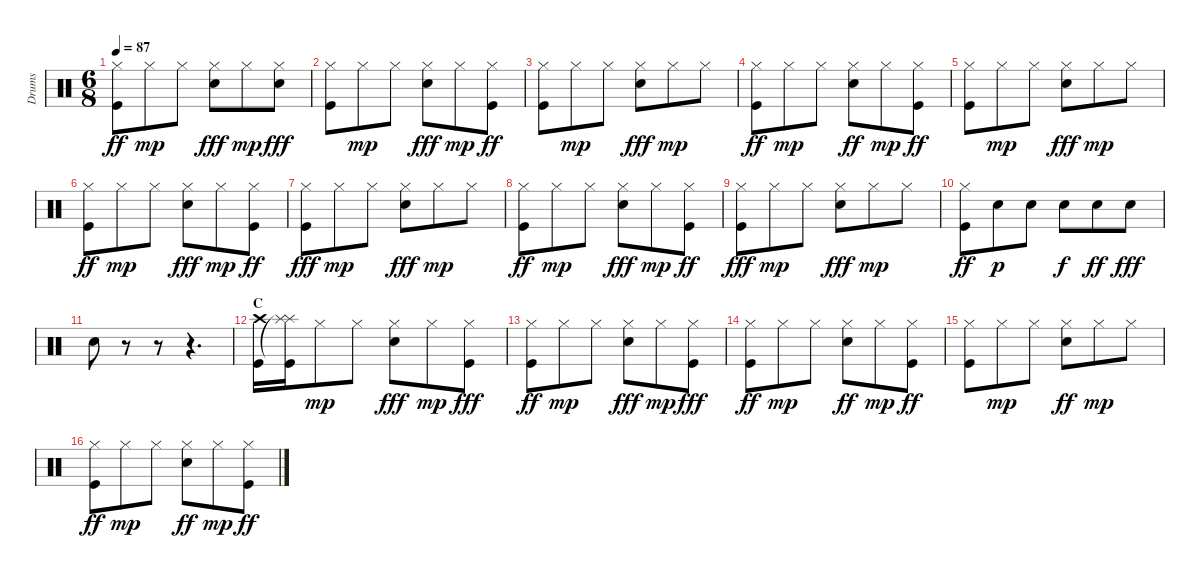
\track ("Drums" "Drums") {instrument percussion}
\staff {score}
\articulation defaults
\ts (6 8)
\tempo 87
\clef neutral
\ks c
("Hi-Hat (closed)" "Kick (hit)").8{dy ff} "Hi-Hat (closed)".8{dy mp} "Hi-Hat (closed)".8 ("Hi-Hat (closed)" "Snare (hit) 2").8{dy fff} "Hi-Hat (closed)".8{dy mp} ("Hi-Hat (closed)" "Snare (hit) 2").8{dy fff} |
("Hi-Hat (closed)" "Kick (hit)").8 "Hi-Hat (closed)".8{dy mp} "Hi-Hat (closed)".8 ("Hi-Hat (closed)" "Snare (hit) 2").8{dy fff} "Hi-Hat (closed)".8{dy mp} ("Hi-Hat (closed)" "Kick (hit)").8{dy ff} |
("Hi-Hat (closed)" "Kick (hit)").8 "Hi-Hat (closed)".8{dy mp} "Hi-Hat (closed)".8 ("Hi-Hat (closed)" "Snare (hit) 2").8{dy fff} "Hi-Hat (closed)".8{dy mp} "Hi-Hat (closed)".8 |
("Hi-Hat (closed)" "Kick (hit)").8{dy ff} "Hi-Hat (closed)".8{dy mp} "Hi-Hat (closed)".8 ("Hi-Hat (closed)" "Snare (hit) 2").8{dy ff} "Hi-Hat (closed)".8{dy mp} ("Hi-Hat (closed)" "Kick (hit)").8{dy ff} |
("Hi-Hat (closed)" "Kick (hit)").8 "Hi-Hat (closed)".8{dy mp} "Hi-Hat (closed)".8 ("Hi-Hat (closed)" "Snare (hit) 2").8{dy fff} "Hi-Hat (closed)".8{dy mp} "Hi-Hat (closed)".8 |
("Hi-Hat (closed)" "Kick (hit)").8{dy ff} "Hi-Hat (closed)".8{dy mp} "Hi-Hat (closed)".8 ("Hi-Hat (closed)" "Snare (hit) 2").8{dy fff} "Hi-Hat (closed)".8{dy mp} ("Hi-Hat (closed)" "Kick (hit)").8{dy ff} |
("Hi-Hat (closed)" "Kick (hit)").8{dy fff} "Hi-Hat (closed)".8{dy mp} "Hi-Hat (closed)".8 ("Hi-Hat (closed)" "Snare (hit) 2").8{dy fff} "Hi-Hat (closed)".8{dy mp} "Hi-Hat (closed)".8 |
("Hi-Hat (closed)" "Kick (hit)").8{dy ff} "Hi-Hat (closed)".8{dy mp} "Hi-Hat (closed)".8 ("Hi-Hat (closed)" "Snare (hit) 2").8{dy fff} "Hi-Hat (closed)".8{dy mp} ("Hi-Hat (closed)" "Kick (hit)").8{dy ff} |
("Hi-Hat (closed)" "Kick (hit)").8{dy fff} "Hi-Hat (closed)".8{dy mp} "Hi-Hat (closed)".8 ("Hi-Hat (closed)" "Snare (hit) 2").8{dy fff} "Hi-Hat (closed)".8{dy mp} "Hi-Hat (closed)".8 |
("Hi-Hat (closed)" "Kick (hit)").8{dy ff} "Snare (hit) 2".8{dy p} "Snare (hit) 2".8 "Snare (hit) 2".8{dy f} "Snare (hit) 2".8{dy ff} "Snare (hit) 2".8{dy fff} |
"Snare (hit) 2".8 r.8 r.8 r.4{d} |
\section ("" "C")
("Crash high (hit)" "Kick (hit)").16 ("Splash (hit)" "Splash (hit)"{t} "Kick (hit)").16 "Hi-Hat (closed)".8{dy mp} "Hi-Hat (closed)".8 ("Hi-Hat (closed)" "Snare (hit) 2").8{dy fff} "Hi-Hat (closed)".8{dy mp} ("Hi-Hat (closed)" "Kick (hit)").8{dy fff} |
("Hi-Hat (closed)" "Kick (hit)").8{dy ff} "Hi-Hat (closed)".8{dy mp} "Hi-Hat (closed)".8 ("Hi-Hat (closed)" "Snare (hit) 2").8{dy fff} "Hi-Hat (closed)".8{dy mp} ("Hi-Hat (closed)" "Kick (hit)").8{dy fff} |
("Hi-Hat (closed)" "Kick (hit)").8{dy ff} "Hi-Hat (closed)".8{dy mp} "Hi-Hat (closed)".8 ("Hi-Hat (closed)" "Snare (hit) 2").8{dy ff} "Hi-Hat (closed)".8{dy mp} ("Hi-Hat (closed)" "Kick (hit)").8{dy ff} |
("Hi-Hat (closed)" "Kick (hit)").8 "Hi-Hat (closed)".8{dy mp} "Hi-Hat (closed)".8 ("Hi-Hat (closed)" "Snare (hit) 2").8{dy ff} "Hi-Hat (closed)".8{dy mp} "Hi-Hat (closed)".8 |
("Hi-Hat (closed)" "Kick (hit)").8{dy ff} "Hi-Hat (closed)".8{dy mp} "Hi-Hat (closed)".8 ("Hi-Hat (closed)" "Snare (hit) 2").8{dy ff} "Hi-Hat (closed)".8{dy mp} ("Hi-Hat (closed)" "Kick (hit)").8{dy ff}
